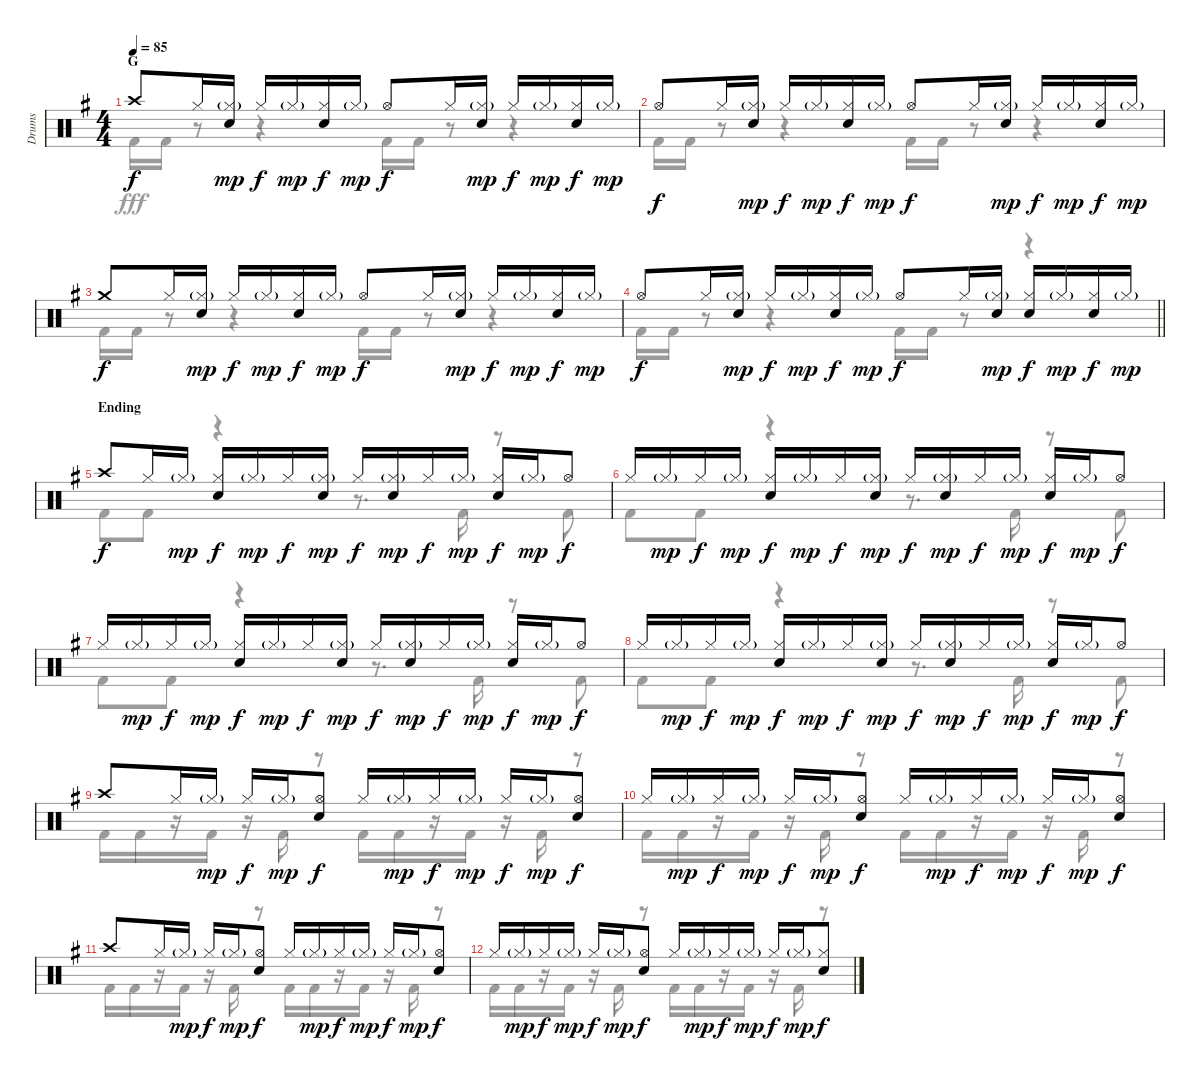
\track ("Drums" "Drums") {instrument percussion}
\staff {score}
\articulation defaults
\voice
\ts (4 4)
\section ("" "G")
\tempo 85
\clef neutral
\ks g "Crash high (hit)".8{dy f} "Hi-Hat (closed)".16
("Hi-Hat (closed)"{g} "Snare (hit) 2").16{dy mp} "Hi-Hat (closed)".16{dy f} "Hi-Hat (closed)"{g}.16{dy mp} ("Hi-Hat (closed)" "Snare (hit) 2").16{dy f} "Hi-Hat (closed)"{g}.16{dy mp} "Hi-Hat (open)".8{dy f} "Hi-Hat (closed)".16 ("Hi-Hat (closed)"{g} "Snare (hit) 2").16{dy mp} "Hi-Hat (closed)".16{dy f} "Hi-Hat (closed)"{g}.16{dy mp} ("Hi-Hat (closed)" "Snare (hit) 2").16{dy f} "Hi-Hat (closed)"{g}.16{dy mp} |
"Hi-Hat (open)".8{dy f} "Hi-Hat (closed)".16 ("Hi-Hat (closed)"{g} "Snare (hit) 2").16{dy mp} "Hi-Hat (closed)".16{dy f} "Hi-Hat (closed)"{g}.16{dy mp} ("Hi-Hat (closed)" "Snare (hit) 2").16{dy f} "Hi-Hat (closed)"{g}.16{dy mp} "Hi-Hat (open)".8{dy f} "Hi-Hat (closed)".16 ("Hi-Hat (closed)"{g} "Snare (hit) 2").16{dy mp} "Hi-Hat (closed)".16{dy f} "Hi-Hat (closed)"{g}.16{dy mp} ("Hi-Hat (closed)" "Snare (hit) 2").16{dy f} "Hi-Hat (closed)"{g}.16{dy mp} |
"Crash medium (hit)".8{dy f} "Hi-Hat (closed)".16 ("Hi-Hat (closed)"{g} "Snare (hit) 2").16{dy mp} "Hi-Hat (closed)".16{dy f} "Hi-Hat (closed)"{g}.16{dy mp} ("Hi-Hat (closed)" "Snare (hit) 2").16{dy f} "Hi-Hat (closed)"{g}.16{dy mp} "Hi-Hat (open)".8{dy f} "Hi-Hat (closed)".16 ("Hi-Hat (closed)"{g} "Snare (hit) 2").16{dy mp} "Hi-Hat (closed)".16{dy f} "Hi-Hat (closed)"{g}.16{dy mp} ("Hi-Hat (closed)" "Snare (hit) 2").16{dy f} "Hi-Hat (closed)"{g}.16{dy mp} |
\barLineRight lightlight "Hi-Hat (open)".8{dy f} "Hi-Hat (closed)".16
("Hi-Hat (closed)"{g} "Snare (hit) 2").16{dy mp} "Hi-Hat (closed)".16{dy f} "Hi-Hat (closed)"{g}.16{dy mp} ("Hi-Hat (closed)" "Snare (hit) 2").16{dy f} "Hi-Hat (closed)"{g}.16{dy mp} "Hi-Hat (open)".8{dy f} "Hi-Hat (closed)".16 ("Hi-Hat (closed)"{g} "Snare (hit) 2").16{dy mp} ("Hi-Hat (closed)" "Snare (hit) 2").16{dy f} "Hi-Hat (closed)"{g}.16{dy mp} ("Hi-Hat (closed)" "Snare (hit) 2").16{dy f} "Hi-Hat (closed)"{g}.16{dy mp} |
\section ("" "Ending")
"Crash high (hit)".8{dy f} "Hi-Hat (closed)".16 "Hi-Hat (closed)"{g}.16{dy mp} ("Hi-Hat (closed)" "Snare (hit) 2").16{dy f} "Hi-Hat (closed)"{g}.16{dy mp} "Hi-Hat (closed)".16{dy f} ("Hi-Hat (closed)"{g} "Snare (hit) 2").16{dy mp} "Hi-Hat (closed)".16{dy f} ("Hi-Hat (closed)"{g} "Snare (hit) 2").16{dy mp} "Hi-Hat (closed)".16{dy f} "Hi-Hat (closed)"{g}.16{dy mp} ("Hi-Hat (closed)" "Snare (hit) 2").16{dy f} "Hi-Hat (closed)"{g}.16{dy mp} "Hi-Hat (open)".8{dy f} |
"Hi-Hat (closed)".16 "Hi-Hat (closed)"{g}.16{dy mp} "Hi-Hat (closed)".16{dy f} "Hi-Hat (closed)"{g}.16{dy mp} ("Hi-Hat (closed)" "Snare (hit) 2").16{dy f} "Hi-Hat (closed)"{g}.16{dy mp} "Hi-Hat (closed)".16{dy f} ("Hi-Hat (closed)"{g} "Snare (hit) 2").16{dy mp} "Hi-Hat (closed)".16{dy f} ("Hi-Hat (closed)"{g} "Snare (hit) 2").16{dy mp} "Hi-Hat (closed)".16{dy f} "Hi-Hat (closed)"{g}.16{dy mp} ("Hi-Hat (closed)" "Snare (hit) 2").16{dy f} "Hi-Hat (closed)"{g}.16{dy mp} "Hi-Hat (open)".8{dy f} |
"Hi-Hat (closed)".16 "Hi-Hat (closed)"{g}.16{dy mp} "Hi-Hat (closed)".16{dy f} "Hi-Hat (closed)"{g}.16{dy mp} ("Hi-Hat (closed)" "Snare (hit) 2").16{dy f} "Hi-Hat (closed)"{g}.16{dy mp} "Hi-Hat (closed)".16{dy f} ("Hi-Hat (closed)"{g} "Snare (hit) 2").16{dy mp} "Hi-Hat (closed)".16{dy f} ("Hi-Hat (closed)"{g} "Snare (hit) 2").16{dy mp} "Hi-Hat (closed)".16{dy f} "Hi-Hat (closed)"{g}.16{dy mp} ("Hi-Hat (closed)" "Snare (hit) 2").16{dy f} "Hi-Hat (closed)"{g}.16{dy mp} "Hi-Hat (open)".8{dy f} |
"Hi-Hat (closed)".16 "Hi-Hat (closed)"{g}.16{dy mp} "Hi-Hat (closed)".16{dy f} "Hi-Hat (closed)"{g}.16{dy mp} ("Hi-Hat (closed)" "Snare (hit) 2").16{dy f} "Hi-Hat (closed)"{g}.16{dy mp} "Hi-Hat (closed)".16{dy f} ("Hi-Hat (closed)"{g} "Snare (hit) 2").16{dy mp} "Hi-Hat (closed)".16{dy f} ("Hi-Hat (closed)"{g} "Snare (hit) 2").16{dy mp} "Hi-Hat (closed)".16{dy f} "Hi-Hat (closed)"{g}.16{dy mp} ("Hi-Hat (closed)" "Snare (hit) 2").16{dy f} "Hi-Hat (closed)"{g}.16{dy mp} "Hi-Hat (open)".8{dy f} |
"Crash high (hit)".8 "Hi-Hat (closed)".16 "Hi-Hat (closed)"{g}.16{dy mp} "Hi-Hat (closed)".16{dy f} "Hi-Hat (closed)"{g}.16{dy mp} ("Hi-Hat (open)" "Snare (hit) 2").8{dy f} "Hi-Hat (closed)".16 "Hi-Hat (closed)"{g}.16{dy mp} "Hi-Hat (closed)".16{dy f} "Hi-Hat (closed)"{g}.16{dy mp} "Hi-Hat (closed)".16{dy f} "Hi-Hat (closed)"{g}.16{dy mp} ("Hi-Hat (open)" "Snare (hit) 2").8{dy f} |
"Hi-Hat (closed)".16 "Hi-Hat (closed)"{g}.16{dy mp} "Hi-Hat (closed)".16{dy f} "Hi-Hat (closed)"{g}.16{dy mp} "Hi-Hat (closed)".16{dy f} "Hi-Hat (closed)"{g}.16{dy mp} ("Hi-Hat (open)" "Snare (hit) 2").8{dy f} "Hi-Hat (closed)".16 "Hi-Hat (closed)"{g}.16{dy mp} "Hi-Hat (closed)".16{dy f} "Hi-Hat (closed)"{g}.16{dy mp} "Hi-Hat (closed)".16{dy f} "Hi-Hat (closed)"{g}.16{dy mp} ("Hi-Hat (open)" "Snare (hit) 2").8{dy f} |
"Crash high (hit)".8 "Hi-Hat (closed)".16 "Hi-Hat (closed)"{g}.16{dy mp} "Hi-Hat (closed)".16{dy f} "Hi-Hat (closed)"{g}.16{dy mp} ("Hi-Hat (open)" "Snare (hit) 2").8{dy f} "Hi-Hat (closed)".16 "Hi-Hat (closed)"{g}.16{dy mp} "Hi-Hat (closed)".16{dy f} "Hi-Hat (closed)"{g}.16{dy mp} "Hi-Hat (closed)".16{dy f} "Hi-Hat (closed)"{g}.16{dy mp} ("Hi-Hat (open)" "Snare (hit) 2").8{dy f} |
"Hi-Hat (closed)".16 "Hi-Hat (closed)"{g}.16{dy mp} "Hi-Hat (closed)".16{dy f} "Hi-Hat (closed)"{g}.16{dy mp} "Hi-Hat (closed)".16{dy f} "Hi-Hat (closed)"{g}.16{dy mp} ("Hi-Hat (open)" "Snare (hit) 2").8{dy f} "Hi-Hat (closed)".16 "Hi-Hat (closed)"{g}.16{dy mp} "Hi-Hat (closed)".16{dy f} "Hi-Hat (closed)"{g}.16{dy mp} "Hi-Hat (closed)".16{dy f} "Hi-Hat (closed)"{g}.16{dy mp} ("Hi-Hat (closed)" "Snare (hit) 2").8{dy f}
\voice
\clef neutral
\ottava regular
\simile none
\ks g "Kick (hit) 2".16{dy fff} "Kick (hit) 2".16
r.8 r.4 "Kick (hit) 2".16 "Kick (hit) 2".16 r.8 r.4 |
"Kick (hit) 2".16 "Kick (hit) 2".16 r.8 r.4 "Kick (hit) 2".16 "Kick (hit) 2".16 r.8 r.4 |
"Kick (hit) 2".16 "Kick (hit) 2".16 r.8 r.4 "Kick (hit) 2".16 "Kick (hit) 2".16 r.8 r.4 |
\barLineRight lightlight "Kick (hit) 2".16 "Kick (hit) 2".16
r.8 r.4 "Kick (hit) 2".16 "Kick (hit) 2".16 r.8 r.4 |
"Kick (hit) 2".8 "Kick (hit) 2".8 r.4 r.8{d} "Kick (hit) 2".16 r.8 "Kick (hit) 2".8 |
"Kick (hit) 2".8 "Kick (hit) 2".8 r.4 r.8{d} "Kick (hit) 2".16 r.8 "Kick (hit) 2".8 |
"Kick (hit) 2".8 "Kick (hit) 2".8 r.4 r.8{d} "Kick (hit) 2".16 r.8 "Kick (hit) 2".8 |
"Kick (hit) 2".8 "Kick (hit) 2".8 r.4 r.8{d} "Kick (hit) 2".16 r.8 "Kick (hit) 2".8 |
"Kick (hit) 2".16 "Kick (hit) 2".16 r.16 "Kick (hit) 2".16 r.16 "Kick (hit) 2".16 r.8 "Kick (hit) 2".16 "Kick (hit) 2".16 r.16 "Kick (hit) 2".16 r.16 "Kick (hit) 2".16 r.8 |
"Kick (hit) 2".16 "Kick (hit) 2".16 r.16 "Kick (hit) 2".16 r.16 "Kick (hit) 2".16 r.8 "Kick (hit) 2".16 "Kick (hit) 2".16 r.16 "Kick (hit) 2".16 r.16 "Kick (hit) 2".16 r.8 |
"Kick (hit) 2".16 "Kick (hit) 2".16 r.16 "Kick (hit) 2".16 r.16 "Kick (hit) 2".16 r.8 "Kick (hit) 2".16 "Kick (hit) 2".16 r.16 "Kick (hit) 2".16 r.16 "Kick (hit) 2".16 r.8 |
"Kick (hit) 2".16 "Kick (hit) 2".16 r.16 "Kick (hit) 2".16 r.16 "Kick (hit) 2".16 r.8 "Kick (hit) 2".16 "Kick (hit) 2".16 r.16 "Kick (hit) 2".16 r.16 "Kick (hit) 2".16 r.8
